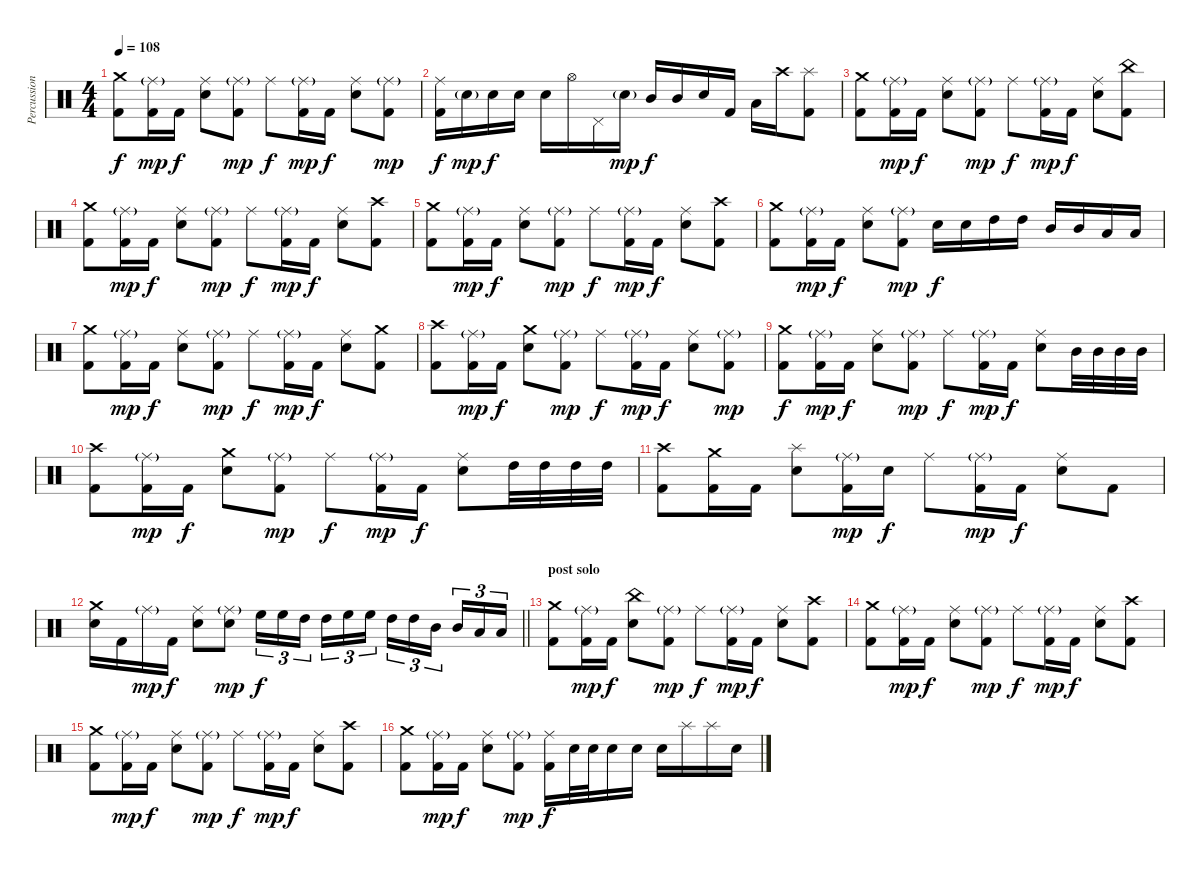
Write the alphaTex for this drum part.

\track ("Percussion" "Percussion") {instrument percussion}
\staff {score}
\articulation defaults
\ts (4 4)
\tempo 108
\clef neutral
\ks c
("Crash medium (hit)" "Kick (hit) 2").8{dy f} ("Ride (middle)"{g} "Kick (hit) 2").16{dy mp} "Kick (hit) 2".16{dy f} ("Ride (middle)" "Electric Snare (hit)").8 ("Ride (middle)"{g} "Kick (hit) 2").8{dy mp} "Ride (middle)".8{dy f} ("Ride (middle)"{g} "Kick (hit) 2").16{dy mp} "Kick (hit) 2".16{dy f} ("Ride (middle)" "Electric Snare (hit)").8 ("Ride (middle)"{g} "Kick (hit) 2").8{dy mp} |
("Ride (middle)" "Kick (hit) 2").16{dy f} "Electric Snare (hit)"{g}.16{dy mp} "Electric Snare (hit)".16{dy f} "Electric Snare (hit)".16 "Electric Snare (hit)".16 "Hi-Hat (open)".16 "Pedal Hi-Hat (hit)".16 "Electric Snare (hit)"{g}.16{dy mp} "Mid Tom (hit)".16{dy f} "Mid Tom (hit)".16 "Electric Snare (hit)".16 "Kick (hit) 2".16 "Low Tom (hit)".16 "Crash high (hit)".16 ("Splash (hit)" "Kick (hit) 2").8 |
("Crash medium (hit)" "Kick (hit) 2").8 ("Ride (middle)"{g} "Kick (hit) 2").16{dy mp} "Kick (hit) 2".16{dy f} ("Ride (middle)" "Electric Snare (hit)").8 ("Ride (middle)"{g} "Kick (hit) 2").8{dy mp} "Ride (middle)".8{dy f} ("Ride (middle)"{g} "Kick (hit) 2").16{dy mp} "Kick (hit) 2".16{dy f} ("Ride (middle)" "Electric Snare (hit)").8 ("China (hit)" "Kick (hit) 2").8 |
("Crash medium (hit)" "Kick (hit) 2").8 ("Ride (middle)"{g} "Kick (hit) 2").16{dy mp} "Kick (hit) 2".16{dy f} ("Ride (middle)" "Electric Snare (hit)").8 ("Ride (middle)"{g} "Kick (hit) 2").8{dy mp} "Ride (middle)".8{dy f} ("Ride (middle)"{g} "Kick (hit) 2").16{dy mp} "Kick (hit) 2".16{dy f} ("Ride (middle)" "Electric Snare (hit)").8 ("Crash high (hit)" "Kick (hit) 2").8 |
("Crash medium (hit)" "Kick (hit) 2").8 ("Ride (middle)"{g} "Kick (hit) 2").16{dy mp} "Kick (hit) 2".16{dy f} ("Ride (middle)" "Electric Snare (hit)").8 ("Ride (middle)"{g} "Kick (hit) 2").8{dy mp} "Ride (middle)".8{dy f} ("Ride (middle)"{g} "Kick (hit) 2").16{dy mp} "Kick (hit) 2".16{dy f} ("Ride (middle)" "Electric Snare (hit)").8 ("Crash high (hit)" "Kick (hit) 2").8 |
("Crash medium (hit)" "Kick (hit) 2").8 ("Ride (middle)"{g} "Kick (hit) 2").16{dy mp} "Kick (hit) 2".16{dy f} ("Ride (middle)" "Electric Snare (hit)").8 ("Ride (middle)"{g} "Kick (hit) 2").8{dy mp} "Electric Snare (hit)".16{dy f} "Electric Snare (hit)".16 "High Tom (hit)".16 "High Tom (hit)".16 "Mid Tom (hit)".16 "Mid Tom (hit)".16 "Low Tom (hit)".16 "Low Tom (hit)".16 |
("Crash medium (hit)" "Kick (hit) 2").8 ("Ride (middle)"{g} "Kick (hit) 2").16{dy mp} "Kick (hit) 2".16{dy f} ("Ride (middle)" "Electric Snare (hit)").8 ("Ride (middle)"{g} "Kick (hit) 2").8{dy mp} "Ride (middle)".8{dy f} ("Ride (middle)"{g} "Kick (hit) 2").16{dy mp} "Kick (hit) 2".16{dy f} ("Ride (middle)" "Electric Snare (hit)").8 ("Crash medium (hit)" "Kick (hit) 2").8 |
("Crash high (hit)" "Kick (hit) 2").8 ("Ride (middle)"{g} "Kick (hit) 2").16{dy mp} "Kick (hit) 2".16{dy f} ("Crash medium (hit)" "Electric Snare (hit)").8 ("Ride (middle)"{g} "Kick (hit) 2").8{dy mp} "Ride (middle)".8{dy f} ("Ride (middle)"{g} "Kick (hit) 2").16{dy mp} "Kick (hit) 2".16{dy f} ("Ride (middle)" "Electric Snare (hit)").8 ("Ride (middle)"{g} "Kick (hit) 2").8{dy mp} |
("Crash medium (hit)" "Kick (hit) 2").8{dy f} ("Ride (middle)"{g} "Kick (hit) 2").16{dy mp} "Kick (hit) 2".16{dy f} ("Ride (middle)" "Electric Snare (hit)").8 ("Ride (middle)"{g} "Kick (hit) 2").8{dy mp} "Ride (middle)".8{dy f} ("Ride (middle)"{g} "Kick (hit) 2").16{dy mp} "Kick (hit) 2".16{dy f} ("Ride (middle)" "Electric Snare (hit)").8 "Mid Tom (hit)".32 "Mid Tom (hit)".32 "Mid Tom (hit)".32 "Mid Tom (hit)".32 |
("Crash high (hit)" "Kick (hit) 2").8 ("Ride (middle)"{g} "Kick (hit) 2").16{dy mp} "Kick (hit) 2".16{dy f} ("Crash medium (hit)" "Electric Snare (hit)").8 ("Ride (middle)"{g} "Kick (hit) 2").8{dy mp} "Ride (middle)".8{dy f} ("Ride (middle)"{g} "Kick (hit) 2").16{dy mp} "Kick (hit) 2".16{dy f} ("Ride (middle)" "Electric Snare (hit)").8 "High Tom (hit)".32 "High Tom (hit)".32 "High Tom (hit)".32 "High Tom (hit)".32 |
("Crash high (hit)" "Kick (hit) 2").8 ("Crash medium (hit)" "Kick (hit) 2").16 "Kick (hit) 2".16 ("Splash (hit)" "Electric Snare (hit)").8 ("Ride (middle)"{g} "Kick (hit) 2").16{dy mp} "Electric Snare (hit)".16{dy f} "Ride (middle)".8 ("Ride (middle)"{g} "Kick (hit) 2").16{dy mp} "Kick (hit) 2".16{dy f} ("Ride (middle)" "Electric Snare (hit)").8 "Kick (hit) 2".8 |
\barLineRight lightlight
("Crash medium (hit)" "Electric Snare (hit)").16 "Kick (hit) 2".16 "Ride (middle)"{g}.16{dy mp} "Kick (hit) 2".16{dy f} ("Ride (middle)" "Electric Snare (hit)").8 ("Ride (middle)"{g} "Electric Snare (hit)").8{dy mp} "High Floor Tom (hit)".16{tu (3 2) dy f} "High Floor Tom (hit)".16{tu (3 2)} "High Tom (hit)".16{tu (3 2) beam splitsecondary} "High Tom (hit)".16{tu (3 2)} "High Floor Tom (hit)".16{tu (3 2)} "High Floor Tom (hit)".16{tu (3 2)} "High Tom (hit)".16{tu (3 2)} "High Tom (hit)".16{tu (3 2)} "Mid Tom (hit)".16{tu (3 2) beam splitsecondary} "Mid Tom (hit)".16{tu (3 2)} "Low Tom (hit)".16{tu (3 2)} "Low Tom (hit)".16{tu (3 2)} |
\section ("" "post solo")
("Crash medium (hit)" "Kick (hit) 2").8 ("Ride (middle)"{g} "Kick (hit) 2").16{dy mp} "Kick (hit) 2".16{dy f} ("China (hit)" "Electric Snare (hit)").8 ("Ride (middle)"{g} "Kick (hit) 2").8{dy mp} "Ride (middle)".8{dy f} ("Ride (middle)"{g} "Kick (hit) 2").16{dy mp} "Kick (hit) 2".16{dy f} ("Ride (middle)" "Electric Snare (hit)").8 ("Crash high (hit)" "Kick (hit) 2").8 |
("Crash medium (hit)" "Kick (hit) 2").8 ("Ride (middle)"{g} "Kick (hit) 2").16{dy mp} "Kick (hit) 2".16{dy f} ("Ride (middle)" "Electric Snare (hit)").8 ("Ride (middle)"{g} "Kick (hit) 2").8{dy mp} "Ride (middle)".8{dy f} ("Ride (middle)"{g} "Kick (hit) 2").16{dy mp} "Kick (hit) 2".16{dy f} ("Ride (middle)" "Electric Snare (hit)").8 ("Crash high (hit)" "Kick (hit) 2").8 |
("Crash medium (hit)" "Kick (hit) 2").8 ("Ride (middle)"{g} "Kick (hit) 2").16{dy mp} "Kick (hit) 2".16{dy f} ("Ride (middle)" "Electric Snare (hit)").8 ("Ride (middle)"{g} "Kick (hit) 2").8{dy mp} "Ride (middle)".8{dy f} ("Ride (middle)"{g} "Kick (hit) 2").16{dy mp} "Kick (hit) 2".16{dy f} ("Ride (middle)" "Electric Snare (hit)").8 ("Crash high (hit)" "Kick (hit) 2").8 |
("Crash medium (hit)" "Kick (hit) 2").8 ("Ride (middle)"{g} "Kick (hit) 2").16{dy mp} "Kick (hit) 2".16{dy f} ("Ride (middle)" "Electric Snare (hit)").8 ("Ride (middle)"{g} "Kick (hit) 2").8{dy mp} ("Ride (middle)" "Kick (hit) 2").16{dy f} "Electric Snare (hit)".32 "Electric Snare (hit)".32 "Electric Snare (hit)".16 "Electric Snare (hit)".16 "Electric Snare (hit)".16 "Splash (hit)".16 "Splash (hit)".16 "Electric Snare (hit)".16
